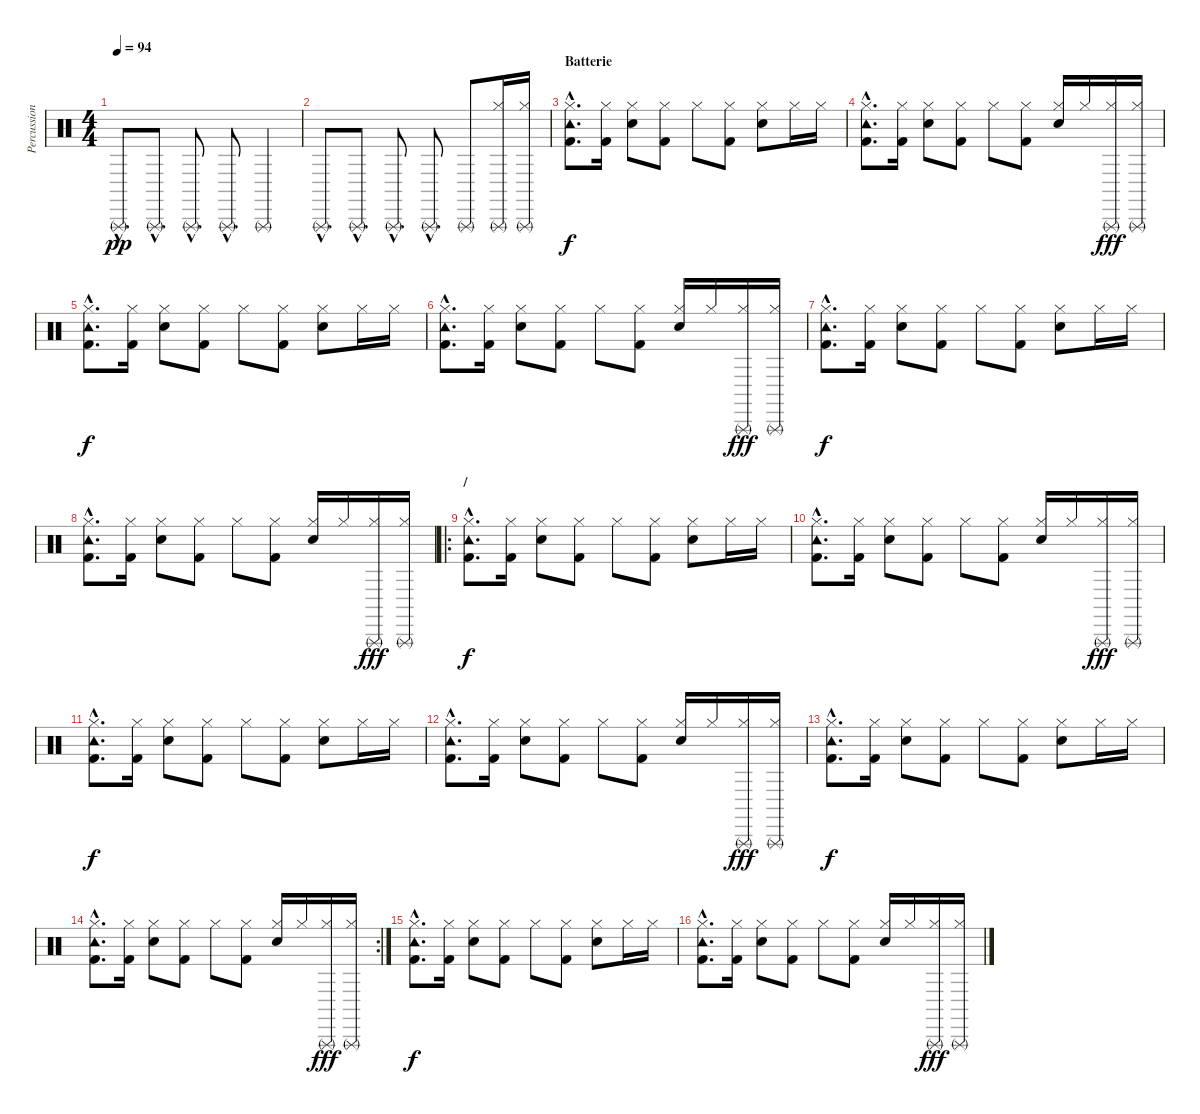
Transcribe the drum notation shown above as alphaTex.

\track ("Percussions" "Percussion") {instrument percussion}
\staff {score}
\articulation defaults
\ts (4 4)
\tempo 94
\clef neutral
\ks c "Triangle (rnute)"{hac}.8{d dy pp} "Triangle (rnute)"{hac}.8{d} "Triangle (rnute)"{hac}.8{d} "Triangle (rnute)"{hac}.8{d} "Triangle (rnute)".4
|
"Triangle (rnute)"{hac}.8{d} "Triangle (rnute)"{hac}.8{d} "Triangle (rnute)"{hac}.8{d} "Triangle (rnute)"{hac}.8{d} "Triangle (rnute)".8 ("Triangle (rnute)" "Hi-Hat (closed)").16 ("Triangle (rnute)" "Hi-Hat (closed)").16 |
\section ("" "Batterie")
("Hi-Hat (closed)"{hac} "Tambourine (hit)"{hac} "Kick (hit) 2"{hac}).8{d dy f} ("Hi-Hat (closed)" "Kick (hit) 2").16 ("Hi-Hat (closed)" "Electric Snare (hit)").8 ("Hi-Hat (closed)" "Kick (hit) 2").8 "Hi-Hat (closed)".8 ("Hi-Hat (closed)" "Kick (hit) 2").8 ("Hi-Hat (closed)" "Electric Snare (hit)").8 "Hi-Hat (closed)".16 "Hi-Hat (closed)".16 |
("Hi-Hat (closed)"{hac} "Tambourine (hit)"{hac} "Kick (hit) 2"{hac}).8{d} ("Hi-Hat (closed)" "Kick (hit) 2").16 ("Hi-Hat (closed)" "Electric Snare (hit)").8 ("Hi-Hat (closed)" "Kick (hit) 2").8 "Hi-Hat (closed)".8 ("Hi-Hat (closed)" "Kick (hit) 2").8 ("Hi-Hat (closed)" "Electric Snare (hit)").16 "Hi-Hat (closed)".16 ("Hi-Hat (closed)" "Triangle (rnute)").16{dy fff} ("Hi-Hat (closed)" "Triangle (rnute)").16 |
("Hi-Hat (closed)"{hac} "Tambourine (hit)"{hac} "Kick (hit) 2"{hac}).8{d dy f} ("Hi-Hat (closed)" "Kick (hit) 2").16 ("Hi-Hat (closed)" "Electric Snare (hit)").8 ("Hi-Hat (closed)" "Kick (hit) 2").8 "Hi-Hat (closed)".8 ("Hi-Hat (closed)" "Kick (hit) 2").8 ("Hi-Hat (closed)" "Electric Snare (hit)").8 "Hi-Hat (closed)".16 "Hi-Hat (closed)".16 |
("Hi-Hat (closed)"{hac} "Tambourine (hit)"{hac} "Kick (hit) 2"{hac}).8{d} ("Hi-Hat (closed)" "Kick (hit) 2").16 ("Hi-Hat (closed)" "Electric Snare (hit)").8 ("Hi-Hat (closed)" "Kick (hit) 2").8 "Hi-Hat (closed)".8 ("Hi-Hat (closed)" "Kick (hit) 2").8 ("Hi-Hat (closed)" "Electric Snare (hit)").16 "Hi-Hat (closed)".16 ("Hi-Hat (closed)" "Triangle (rnute)").16{dy fff} ("Hi-Hat (closed)" "Triangle (rnute)").16 |
("Hi-Hat (closed)"{hac} "Tambourine (hit)"{hac} "Kick (hit) 2"{hac}).8{d dy f} ("Hi-Hat (closed)" "Kick (hit) 2").16 ("Hi-Hat (closed)" "Electric Snare (hit)").8 ("Hi-Hat (closed)" "Kick (hit) 2").8 "Hi-Hat (closed)".8 ("Hi-Hat (closed)" "Kick (hit) 2").8 ("Hi-Hat (closed)" "Electric Snare (hit)").8 "Hi-Hat (closed)".16 "Hi-Hat (closed)".16 |
("Hi-Hat (closed)"{hac} "Tambourine (hit)"{hac} "Kick (hit) 2"{hac}).8{d} ("Hi-Hat (closed)" "Kick (hit) 2").16 ("Hi-Hat (closed)" "Electric Snare (hit)").8 ("Hi-Hat (closed)" "Kick (hit) 2").8 "Hi-Hat (closed)".8 ("Hi-Hat (closed)" "Kick (hit) 2").8 ("Hi-Hat (closed)" "Electric Snare (hit)").16 "Hi-Hat (closed)".16 ("Hi-Hat (closed)" "Triangle (rnute)").16{dy fff} ("Hi-Hat (closed)" "Triangle (rnute)").16 |
\ro
\section ("" "/")
("Hi-Hat (closed)"{hac} "Tambourine (hit)"{hac} "Kick (hit) 2"{hac}).8{d dy f} ("Hi-Hat (closed)" "Kick (hit) 2").16 ("Hi-Hat (closed)" "Electric Snare (hit)").8 ("Hi-Hat (closed)" "Kick (hit) 2").8 "Hi-Hat (closed)".8 ("Hi-Hat (closed)" "Kick (hit) 2").8 ("Hi-Hat (closed)" "Electric Snare (hit)").8 "Hi-Hat (closed)".16 "Hi-Hat (closed)".16 |
("Hi-Hat (closed)"{hac} "Tambourine (hit)"{hac} "Kick (hit) 2"{hac}).8{d} ("Hi-Hat (closed)" "Kick (hit) 2").16 ("Hi-Hat (closed)" "Electric Snare (hit)").8 ("Hi-Hat (closed)" "Kick (hit) 2").8 "Hi-Hat (closed)".8 ("Hi-Hat (closed)" "Kick (hit) 2").8 ("Hi-Hat (closed)" "Electric Snare (hit)").16 "Hi-Hat (closed)".16 ("Hi-Hat (closed)" "Triangle (rnute)").16{dy fff} ("Hi-Hat (closed)" "Triangle (rnute)").16 |
("Hi-Hat (closed)"{hac} "Tambourine (hit)"{hac} "Kick (hit) 2"{hac}).8{d dy f} ("Hi-Hat (closed)" "Kick (hit) 2").16 ("Hi-Hat (closed)" "Electric Snare (hit)").8 ("Hi-Hat (closed)" "Kick (hit) 2").8 "Hi-Hat (closed)".8 ("Hi-Hat (closed)" "Kick (hit) 2").8 ("Hi-Hat (closed)" "Electric Snare (hit)").8 "Hi-Hat (closed)".16 "Hi-Hat (closed)".16 |
("Hi-Hat (closed)"{hac} "Tambourine (hit)"{hac} "Kick (hit) 2"{hac}).8{d} ("Hi-Hat (closed)" "Kick (hit) 2").16 ("Hi-Hat (closed)" "Electric Snare (hit)").8 ("Hi-Hat (closed)" "Kick (hit) 2").8 "Hi-Hat (closed)".8 ("Hi-Hat (closed)" "Kick (hit) 2").8 ("Hi-Hat (closed)" "Electric Snare (hit)").16 "Hi-Hat (closed)".16 ("Hi-Hat (closed)" "Triangle (rnute)").16{dy fff} ("Hi-Hat (closed)" "Triangle (rnute)").16 |
("Hi-Hat (closed)"{hac} "Tambourine (hit)"{hac} "Kick (hit) 2"{hac}).8{d dy f} ("Hi-Hat (closed)" "Kick (hit) 2").16 ("Hi-Hat (closed)" "Electric Snare (hit)").8 ("Hi-Hat (closed)" "Kick (hit) 2").8 "Hi-Hat (closed)".8 ("Hi-Hat (closed)" "Kick (hit) 2").8 ("Hi-Hat (closed)" "Electric Snare (hit)").8 "Hi-Hat (closed)".16 "Hi-Hat (closed)".16 |
\rc 2
("Hi-Hat (closed)"{hac} "Tambourine (hit)"{hac} "Kick (hit) 2"{hac}).8{d} ("Hi-Hat (closed)" "Kick (hit) 2").16 ("Hi-Hat (closed)" "Electric Snare (hit)").8 ("Hi-Hat (closed)" "Kick (hit) 2").8 "Hi-Hat (closed)".8 ("Hi-Hat (closed)" "Kick (hit) 2").8 ("Hi-Hat (closed)" "Electric Snare (hit)").16 "Hi-Hat (closed)".16 ("Hi-Hat (closed)" "Triangle (rnute)").16{dy fff} ("Hi-Hat (closed)" "Triangle (rnute)").16 |
("Hi-Hat (closed)"{hac} "Tambourine (hit)"{hac} "Kick (hit) 2"{hac}).8{d dy f} ("Hi-Hat (closed)" "Kick (hit) 2").16 ("Hi-Hat (closed)" "Electric Snare (hit)").8 ("Hi-Hat (closed)" "Kick (hit) 2").8 "Hi-Hat (closed)".8 ("Hi-Hat (closed)" "Kick (hit) 2").8 ("Hi-Hat (closed)" "Electric Snare (hit)").8 "Hi-Hat (closed)".16 "Hi-Hat (closed)".16 |
("Hi-Hat (closed)"{hac} "Tambourine (hit)"{hac} "Kick (hit) 2"{hac}).8{d} ("Hi-Hat (closed)" "Kick (hit) 2").16 ("Hi-Hat (closed)" "Electric Snare (hit)").8 ("Hi-Hat (closed)" "Kick (hit) 2").8 "Hi-Hat (closed)".8 ("Hi-Hat (closed)" "Kick (hit) 2").8 ("Hi-Hat (closed)" "Electric Snare (hit)").16 "Hi-Hat (closed)".16 ("Hi-Hat (closed)" "Triangle (rnute)").16{dy fff} ("Hi-Hat (closed)" "Triangle (rnute)").16
